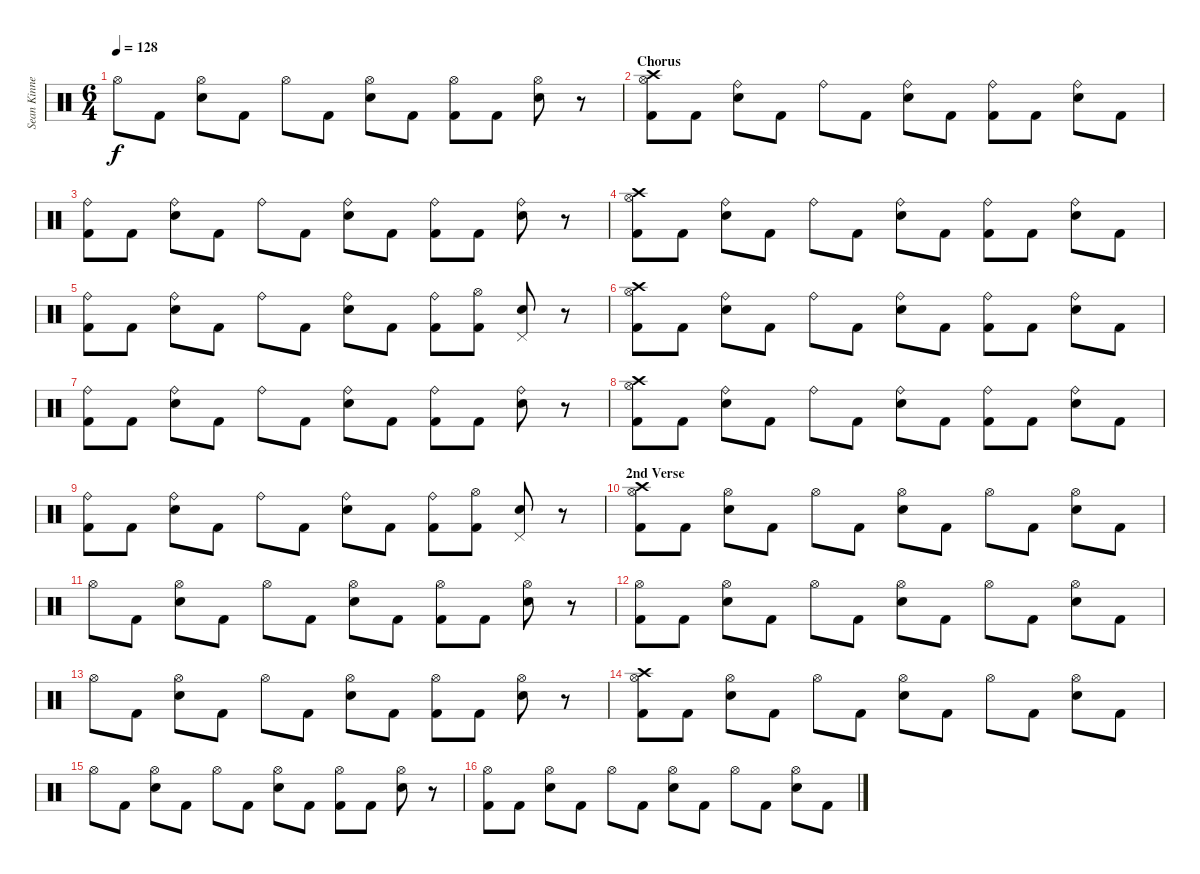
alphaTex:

\track ("Sean Kinney (Drums)" "Sean Kinne") {instrument percussion}
\staff {score}
\articulation defaults
\ts (6 4)
\tempo 128
\clef neutral
\ks c "Hi-Hat (open)".8{dy f} "Kick (hit) 2".8
("Electric Snare (hit)" "Hi-Hat (open)").8 "Kick (hit) 2".8 "Hi-Hat (open)".8 "Kick (hit) 2".8 ("Electric Snare (hit)" "Hi-Hat (open)").8 "Kick (hit) 2".8 ("Kick (hit) 2" "Hi-Hat (open)").8 "Kick (hit) 2".8 ("Electric Snare (hit)" "Hi-Hat (open)").8 r.8 |
\section ("" "Chorus")
("Kick (hit) 2" "Crash high (hit)" "Hi-Hat (open)").8 "Kick (hit) 2".8 ("Electric Snare (hit)" "Ride (bell)").8 "Kick (hit) 2".8 "Ride (bell)".8 "Kick (hit) 2".8 ("Electric Snare (hit)" "Ride (bell)").8 "Kick (hit) 2".8 ("Kick (hit) 2" "Ride (bell)").8 "Kick (hit) 2".8 ("Electric Snare (hit)" "Ride (bell)").8 "Kick (hit) 2".8 |
("Kick (hit) 2" "Ride (bell)").8 "Kick (hit) 2".8 ("Electric Snare (hit)" "Ride (bell)").8 "Kick (hit) 2".8 "Ride (bell)".8 "Kick (hit) 2".8 ("Electric Snare (hit)" "Ride (bell)").8 "Kick (hit) 2".8 ("Kick (hit) 2" "Ride (bell)").8 "Kick (hit) 2".8 ("Electric Snare (hit)" "Ride (bell)").8 r.8 |
("Kick (hit) 2" "Crash high (hit)" "Hi-Hat (open)").8 "Kick (hit) 2".8 ("Electric Snare (hit)" "Ride (bell)").8 "Kick (hit) 2".8 "Ride (bell)".8 "Kick (hit) 2".8 ("Electric Snare (hit)" "Ride (bell)").8 "Kick (hit) 2".8 ("Kick (hit) 2" "Ride (bell)").8 "Kick (hit) 2".8 ("Electric Snare (hit)" "Ride (bell)").8 "Kick (hit) 2".8 |
("Kick (hit) 2" "Ride (bell)").8 "Kick (hit) 2".8 ("Electric Snare (hit)" "Ride (bell)").8 "Kick (hit) 2".8 "Ride (bell)".8 "Kick (hit) 2".8 ("Electric Snare (hit)" "Ride (bell)").8 "Kick (hit) 2".8 ("Kick (hit) 2" "Ride (bell)").8 ("Kick (hit) 2" "Hi-Hat (open)").8 ("Electric Snare (hit)" "Pedal Hi-Hat (hit)").8 r.8 |
("Kick (hit) 2" "Crash high (hit)" "Hi-Hat (open)").8 "Kick (hit) 2".8 ("Electric Snare (hit)" "Ride (bell)").8 "Kick (hit) 2".8 "Ride (bell)".8 "Kick (hit) 2".8 ("Electric Snare (hit)" "Ride (bell)").8 "Kick (hit) 2".8 ("Kick (hit) 2" "Ride (bell)").8 "Kick (hit) 2".8 ("Electric Snare (hit)" "Ride (bell)").8 "Kick (hit) 2".8 |
("Kick (hit) 2" "Ride (bell)").8 "Kick (hit) 2".8 ("Electric Snare (hit)" "Ride (bell)").8 "Kick (hit) 2".8 "Ride (bell)".8 "Kick (hit) 2".8 ("Electric Snare (hit)" "Ride (bell)").8 "Kick (hit) 2".8 ("Kick (hit) 2" "Ride (bell)").8 "Kick (hit) 2".8 ("Electric Snare (hit)" "Ride (bell)").8 r.8 |
("Kick (hit) 2" "Crash high (hit)" "Hi-Hat (open)").8 "Kick (hit) 2".8 ("Electric Snare (hit)" "Ride (bell)").8 "Kick (hit) 2".8 "Ride (bell)".8 "Kick (hit) 2".8 ("Electric Snare (hit)" "Ride (bell)").8 "Kick (hit) 2".8 ("Kick (hit) 2" "Ride (bell)").8 "Kick (hit) 2".8 ("Electric Snare (hit)" "Ride (bell)").8 "Kick (hit) 2".8 |
("Kick (hit) 2" "Ride (bell)").8 "Kick (hit) 2".8 ("Electric Snare (hit)" "Ride (bell)").8 "Kick (hit) 2".8 "Ride (bell)".8 "Kick (hit) 2".8 ("Electric Snare (hit)" "Ride (bell)").8 "Kick (hit) 2".8 ("Kick (hit) 2" "Ride (bell)").8 ("Kick (hit) 2" "Hi-Hat (open)").8 ("Electric Snare (hit)" "Pedal Hi-Hat (hit)").8 r.8 |
\section ("" "2nd Verse")
("Kick (hit) 2" "Crash high (hit)" "Hi-Hat (open)").8 "Kick (hit) 2".8 ("Electric Snare (hit)" "Hi-Hat (open)").8 "Kick (hit) 2".8 "Hi-Hat (open)".8 "Kick (hit) 2".8 ("Electric Snare (hit)" "Hi-Hat (open)").8 "Kick (hit) 2".8 "Hi-Hat (open)".8 "Kick (hit) 2".8 ("Electric Snare (hit)" "Hi-Hat (open)").8 "Kick (hit) 2".8 |
"Hi-Hat (open)".8 "Kick (hit) 2".8 ("Electric Snare (hit)" "Hi-Hat (open)").8 "Kick (hit) 2".8 "Hi-Hat (open)".8 "Kick (hit) 2".8 ("Electric Snare (hit)" "Hi-Hat (open)").8 "Kick (hit) 2".8 ("Kick (hit) 2" "Hi-Hat (open)").8 "Kick (hit) 2".8 ("Electric Snare (hit)" "Hi-Hat (open)").8 r.8 |
("Kick (hit) 2" "Hi-Hat (open)").8 "Kick (hit) 2".8 ("Electric Snare (hit)" "Hi-Hat (open)").8 "Kick (hit) 2".8 "Hi-Hat (open)".8 "Kick (hit) 2".8 ("Electric Snare (hit)" "Hi-Hat (open)").8 "Kick (hit) 2".8 "Hi-Hat (open)".8 "Kick (hit) 2".8 ("Electric Snare (hit)" "Hi-Hat (open)").8 "Kick (hit) 2".8 |
"Hi-Hat (open)".8 "Kick (hit) 2".8 ("Electric Snare (hit)" "Hi-Hat (open)").8 "Kick (hit) 2".8 "Hi-Hat (open)".8 "Kick (hit) 2".8 ("Electric Snare (hit)" "Hi-Hat (open)").8 "Kick (hit) 2".8 ("Kick (hit) 2" "Hi-Hat (open)").8 "Kick (hit) 2".8 ("Electric Snare (hit)" "Hi-Hat (open)").8 r.8 |
("Kick (hit) 2" "Crash high (hit)" "Hi-Hat (open)").8 "Kick (hit) 2".8 ("Electric Snare (hit)" "Hi-Hat (open)").8 "Kick (hit) 2".8 "Hi-Hat (open)".8 "Kick (hit) 2".8 ("Electric Snare (hit)" "Hi-Hat (open)").8 "Kick (hit) 2".8 "Hi-Hat (open)".8 "Kick (hit) 2".8 ("Electric Snare (hit)" "Hi-Hat (open)").8 "Kick (hit) 2".8 |
"Hi-Hat (open)".8 "Kick (hit) 2".8 ("Electric Snare (hit)" "Hi-Hat (open)").8 "Kick (hit) 2".8 "Hi-Hat (open)".8 "Kick (hit) 2".8 ("Electric Snare (hit)" "Hi-Hat (open)").8 "Kick (hit) 2".8 ("Kick (hit) 2" "Hi-Hat (open)").8 "Kick (hit) 2".8 ("Electric Snare (hit)" "Hi-Hat (open)").8 r.8 |
("Kick (hit) 2" "Hi-Hat (open)").8 "Kick (hit) 2".8 ("Electric Snare (hit)" "Hi-Hat (open)").8 "Kick (hit) 2".8 "Hi-Hat (open)".8 "Kick (hit) 2".8 ("Electric Snare (hit)" "Hi-Hat (open)").8 "Kick (hit) 2".8 "Hi-Hat (open)".8 "Kick (hit) 2".8 ("Electric Snare (hit)" "Hi-Hat (open)").8 "Kick (hit) 2".8
